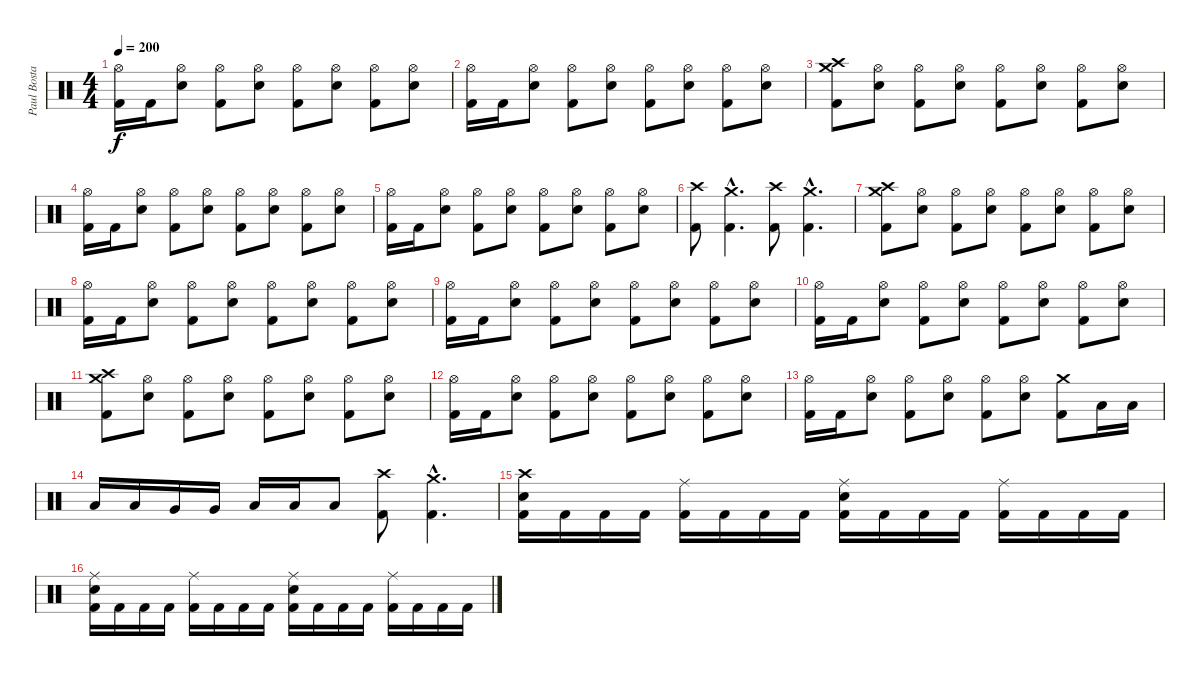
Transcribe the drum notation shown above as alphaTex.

\track ("Paul Bostaph" "Paul Bosta") {instrument percussion}
\staff {score}
\articulation defaults
\ts (4 4)
\tempo 200
\clef neutral
\ks c
("Hi-Hat (open)" "Kick (hit) 2").16{dy f} "Kick (hit) 2".16 ("Hi-Hat (open)" "Electric Snare (hit)").8 ("Hi-Hat (open)" "Kick (hit) 2").8 ("Hi-Hat (open)" "Electric Snare (hit)").8 ("Hi-Hat (open)" "Kick (hit) 2").8 ("Hi-Hat (open)" "Electric Snare (hit)").8 ("Hi-Hat (open)" "Kick (hit) 2").8 ("Hi-Hat (open)" "Electric Snare (hit)").8 |
("Hi-Hat (open)" "Kick (hit) 2").16 "Kick (hit) 2".16 ("Hi-Hat (open)" "Electric Snare (hit)").8 ("Hi-Hat (open)" "Kick (hit) 2").8 ("Hi-Hat (open)" "Electric Snare (hit)").8 ("Hi-Hat (open)" "Kick (hit) 2").8 ("Hi-Hat (open)" "Electric Snare (hit)").8 ("Hi-Hat (open)" "Kick (hit) 2").8 ("Hi-Hat (open)" "Electric Snare (hit)").8 |
("Crash medium (hit)" "Crash high (hit)" "Kick (hit) 2").8 ("Hi-Hat (open)" "Electric Snare (hit)").8 ("Hi-Hat (open)" "Kick (hit) 2").8 ("Hi-Hat (open)" "Electric Snare (hit)").8 ("Hi-Hat (open)" "Kick (hit) 2").8 ("Hi-Hat (open)" "Electric Snare (hit)").8 ("Hi-Hat (open)" "Kick (hit) 2").8 ("Hi-Hat (open)" "Electric Snare (hit)").8 |
("Hi-Hat (open)" "Kick (hit) 2").16 "Kick (hit) 2".16 ("Hi-Hat (open)" "Electric Snare (hit)").8 ("Hi-Hat (open)" "Kick (hit) 2").8 ("Hi-Hat (open)" "Electric Snare (hit)").8 ("Hi-Hat (open)" "Kick (hit) 2").8 ("Hi-Hat (open)" "Electric Snare (hit)").8 ("Hi-Hat (open)" "Kick (hit) 2").8 ("Hi-Hat (open)" "Electric Snare (hit)").8 |
("Hi-Hat (open)" "Kick (hit) 2").16 "Kick (hit) 2".16 ("Hi-Hat (open)" "Electric Snare (hit)").8 ("Hi-Hat (open)" "Kick (hit) 2").8 ("Hi-Hat (open)" "Electric Snare (hit)").8 ("Hi-Hat (open)" "Kick (hit) 2").8 ("Hi-Hat (open)" "Electric Snare (hit)").8 ("Hi-Hat (open)" "Kick (hit) 2").8 ("Hi-Hat (open)" "Electric Snare (hit)").8 |
("Crash high (hit)" "Kick (hit) 2").8 ("Crash medium (hit)"{hac} "Kick (hit) 2"{hac}).4{d} ("Crash high (hit)" "Kick (hit) 2").8 ("Crash medium (hit)"{hac} "Kick (hit) 2"{hac}).4{d} |
("Crash medium (hit)" "Crash high (hit)" "Kick (hit) 2").8 ("Hi-Hat (open)" "Electric Snare (hit)").8 ("Hi-Hat (open)" "Kick (hit) 2").8 ("Hi-Hat (open)" "Electric Snare (hit)").8 ("Hi-Hat (open)" "Kick (hit) 2").8 ("Hi-Hat (open)" "Electric Snare (hit)").8 ("Hi-Hat (open)" "Kick (hit) 2").8 ("Hi-Hat (open)" "Electric Snare (hit)").8 |
("Hi-Hat (open)" "Kick (hit) 2").16 "Kick (hit) 2".16 ("Hi-Hat (open)" "Electric Snare (hit)").8 ("Hi-Hat (open)" "Kick (hit) 2").8 ("Hi-Hat (open)" "Electric Snare (hit)").8 ("Hi-Hat (open)" "Kick (hit) 2").8 ("Hi-Hat (open)" "Electric Snare (hit)").8 ("Hi-Hat (open)" "Kick (hit) 2").8 ("Hi-Hat (open)" "Electric Snare (hit)").8 |
("Hi-Hat (open)" "Kick (hit) 2").16 "Kick (hit) 2".16 ("Hi-Hat (open)" "Electric Snare (hit)").8 ("Hi-Hat (open)" "Kick (hit) 2").8 ("Hi-Hat (open)" "Electric Snare (hit)").8 ("Hi-Hat (open)" "Kick (hit) 2").8 ("Hi-Hat (open)" "Electric Snare (hit)").8 ("Hi-Hat (open)" "Kick (hit) 2").8 ("Hi-Hat (open)" "Electric Snare (hit)").8 |
("Hi-Hat (open)" "Kick (hit) 2").16 "Kick (hit) 2".16 ("Hi-Hat (open)" "Electric Snare (hit)").8 ("Hi-Hat (open)" "Kick (hit) 2").8 ("Hi-Hat (open)" "Electric Snare (hit)").8 ("Hi-Hat (open)" "Kick (hit) 2").8 ("Hi-Hat (open)" "Electric Snare (hit)").8 ("Hi-Hat (open)" "Kick (hit) 2").8 ("Hi-Hat (open)" "Electric Snare (hit)").8 |
("Crash medium (hit)" "Crash high (hit)" "Kick (hit) 2").8 ("Hi-Hat (open)" "Electric Snare (hit)").8 ("Hi-Hat (open)" "Kick (hit) 2").8 ("Hi-Hat (open)" "Electric Snare (hit)").8 ("Hi-Hat (open)" "Kick (hit) 2").8 ("Hi-Hat (open)" "Electric Snare (hit)").8 ("Hi-Hat (open)" "Kick (hit) 2").8 ("Hi-Hat (open)" "Electric Snare (hit)").8 |
("Hi-Hat (open)" "Kick (hit) 2").16 "Kick (hit) 2".16 ("Hi-Hat (open)" "Electric Snare (hit)").8 ("Hi-Hat (open)" "Kick (hit) 2").8 ("Hi-Hat (open)" "Electric Snare (hit)").8 ("Hi-Hat (open)" "Kick (hit) 2").8 ("Hi-Hat (open)" "Electric Snare (hit)").8 ("Hi-Hat (open)" "Kick (hit) 2").8 ("Hi-Hat (open)" "Electric Snare (hit)").8 |
("Hi-Hat (open)" "Kick (hit) 2").16 "Kick (hit) 2".16 ("Hi-Hat (open)" "Electric Snare (hit)").8 ("Hi-Hat (open)" "Kick (hit) 2").8 ("Hi-Hat (open)" "Electric Snare (hit)").8 ("Hi-Hat (open)" "Kick (hit) 2").8 ("Hi-Hat (open)" "Electric Snare (hit)").8 ("Crash medium (hit)" "Kick (hit) 2").8 "Low Tom (hit)".16 "Low Tom (hit)".16 |
"Low Tom (hit)".16 "Low Tom (hit)".16 "Very Low Tom (hit)".16 "Very Low Tom (hit)".16 "Low Floor Tom (hit)".16 "Low Floor Tom (hit)".16 "Low Floor Tom (hit)".8 ("Crash high (hit)" "Kick (hit) 2").8 ("Crash medium (hit)"{hac} "Kick (hit) 2"{hac}).4{d} |
("Electric Snare (hit)" "Kick (hit) 2" "Crash high (hit)").16 "Kick (hit) 2".16 "Kick (hit) 2".16 "Kick (hit) 2".16 ("Kick (hit) 2" "Ride (middle)").16 "Kick (hit) 2".16 "Kick (hit) 2".16 "Kick (hit) 2".16 ("Electric Snare (hit)" "Kick (hit) 2" "Ride (middle)").16 "Kick (hit) 2".16 "Kick (hit) 2".16 "Kick (hit) 2".16 ("Kick (hit) 2" "Ride (middle)").16 "Kick (hit) 2".16 "Kick (hit) 2".16 "Kick (hit) 2".16 |
("Electric Snare (hit)" "Kick (hit) 2" "Ride (middle)").16 "Kick (hit) 2".16 "Kick (hit) 2".16 "Kick (hit) 2".16 ("Kick (hit) 2" "Ride (middle)").16 "Kick (hit) 2".16 "Kick (hit) 2".16 "Kick (hit) 2".16 ("Electric Snare (hit)" "Kick (hit) 2" "Ride (middle)").16 "Kick (hit) 2".16 "Kick (hit) 2".16 "Kick (hit) 2".16 ("Kick (hit) 2" "Ride (middle)").16 "Kick (hit) 2".16 "Kick (hit) 2".16 "Kick (hit) 2".16
